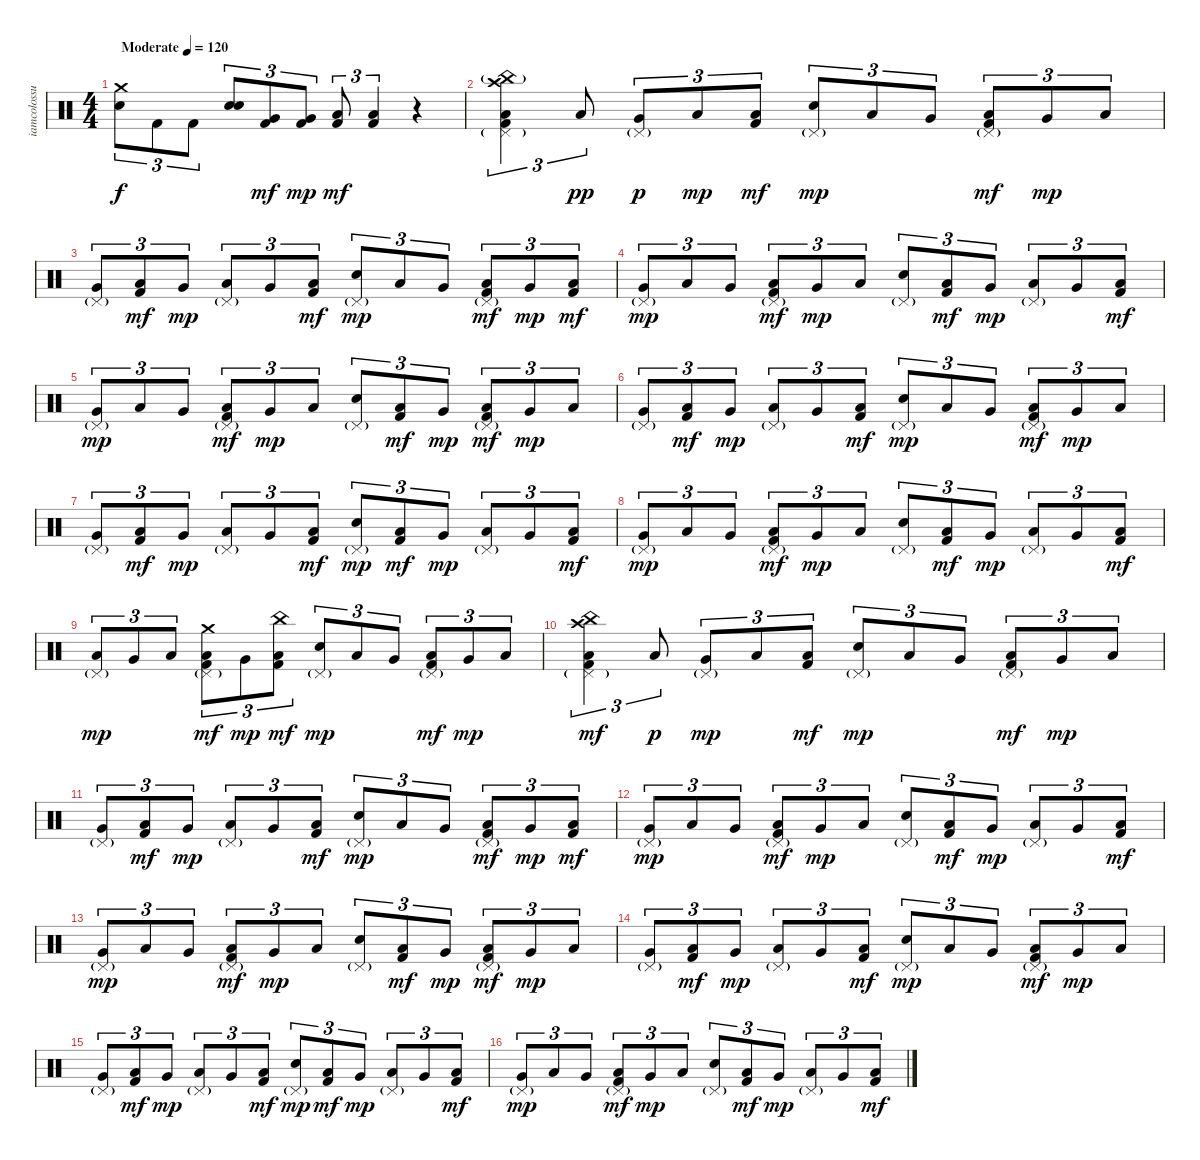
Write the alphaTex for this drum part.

\track ("iamcolossus(Thomas Haake)" "iamcolossu") {instrument percussion}
\staff {score}
\articulation defaults
\ts (4 4)
\tempo (120 "Moderate")
\clef neutral
\ks c
("Crash medium (hit)" "Electric Snare (hit)").8{tu (3 2) dy f} "Kick (hit) 2".8{tu (3 2)} "Kick (hit) 2".8{tu (3 2)} ("Electric Snare (hit)" "Electric Snare (hit)").8{tu (3 2) bd 120} ("Very Low Tom (hit)" "Kick (hit) 2").8{tu (3 2) dy mf} ("Very Low Tom (hit)" "Kick (hit) 2").8{tu (3 2) dy mp} ("Low Floor Tom (hit)" "Kick (hit) 2").8{tu (3 2) dy mf} ("Low Floor Tom (hit)" "Kick (hit) 2").4{tu (3 2)} r.4 |
("Pedal Hi-Hat (hit)"{g} "Crash high (hit)" "China (hit)"{g} "Low Floor Tom (hit)" "Kick (hit) 2").4{tu (3 2)} "Low Floor Tom (hit)".8{tu (3 2) dy pp} ("Pedal Hi-Hat (hit)"{g} "Very Low Tom (hit)").8{tu (3 2) dy p} "Low Floor Tom (hit)".8{tu (3 2) dy mp} ("Low Floor Tom (hit)" "Kick (hit) 2").8{tu (3 2) dy mf} ("Pedal Hi-Hat (hit)"{g} "Electric Snare (hit)").8{tu (3 2) dy mp} "Low Floor Tom (hit)".8{tu (3 2)} "Very Low Tom (hit)".8{tu (3 2)} ("Pedal Hi-Hat (hit)"{g} "Low Floor Tom (hit)" "Kick (hit) 2").8{tu (3 2) dy mf} "Very Low Tom (hit)".8{tu (3 2) dy mp} "Low Floor Tom (hit)".8{tu (3 2)} |
("Pedal Hi-Hat (hit)"{g} "Very Low Tom (hit)").8{tu (3 2)} ("Low Floor Tom (hit)" "Kick (hit) 2").8{tu (3 2) dy mf} "Very Low Tom (hit)".8{tu (3 2) dy mp} ("Pedal Hi-Hat (hit)"{g} "Low Floor Tom (hit)").8{tu (3 2)} "Very Low Tom (hit)".8{tu (3 2)} ("Low Floor Tom (hit)" "Kick (hit) 2").8{tu (3 2) dy mf} ("Pedal Hi-Hat (hit)"{g} "Electric Snare (hit)").8{tu (3 2) dy mp} "Low Floor Tom (hit)".8{tu (3 2)} "Very Low Tom (hit)".8{tu (3 2)} ("Pedal Hi-Hat (hit)"{g} "Low Floor Tom (hit)" "Kick (hit) 2").8{tu (3 2) dy mf} "Very Low Tom (hit)".8{tu (3 2) dy mp} ("Low Floor Tom (hit)" "Kick (hit) 2").8{tu (3 2) dy mf} |
("Pedal Hi-Hat (hit)"{g} "Very Low Tom (hit)").8{tu (3 2) dy mp} "Low Floor Tom (hit)".8{tu (3 2)} "Very Low Tom (hit)".8{tu (3 2)} ("Pedal Hi-Hat (hit)"{g} "Low Floor Tom (hit)" "Kick (hit) 2").8{tu (3 2) dy mf} "Very Low Tom (hit)".8{tu (3 2) dy mp} "Low Floor Tom (hit)".8{tu (3 2)} ("Pedal Hi-Hat (hit)"{g} "Electric Snare (hit)").8{tu (3 2)} ("Low Floor Tom (hit)" "Kick (hit) 2").8{tu (3 2) dy mf} "Very Low Tom (hit)".8{tu (3 2) dy mp} ("Pedal Hi-Hat (hit)"{g} "Low Floor Tom (hit)").8{tu (3 2)} "Very Low Tom (hit)".8{tu (3 2)} ("Low Floor Tom (hit)" "Kick (hit) 2").8{tu (3 2) dy mf} |
("Pedal Hi-Hat (hit)"{g} "Very Low Tom (hit)").8{tu (3 2) dy mp} "Low Floor Tom (hit)".8{tu (3 2)} "Very Low Tom (hit)".8{tu (3 2)} ("Pedal Hi-Hat (hit)"{g} "Low Floor Tom (hit)" "Kick (hit) 2").8{tu (3 2) dy mf} "Very Low Tom (hit)".8{tu (3 2) dy mp} "Low Floor Tom (hit)".8{tu (3 2)} ("Pedal Hi-Hat (hit)"{g} "Electric Snare (hit)").8{tu (3 2)} ("Low Floor Tom (hit)" "Kick (hit) 2").8{tu (3 2) dy mf} "Very Low Tom (hit)".8{tu (3 2) dy mp} ("Pedal Hi-Hat (hit)"{g} "Low Floor Tom (hit)" "Kick (hit) 2").8{tu (3 2) dy mf} "Very Low Tom (hit)".8{tu (3 2) dy mp} "Low Floor Tom (hit)".8{tu (3 2)} |
("Pedal Hi-Hat (hit)"{g} "Very Low Tom (hit)").8{tu (3 2)} ("Low Floor Tom (hit)" "Kick (hit) 2").8{tu (3 2) dy mf} "Very Low Tom (hit)".8{tu (3 2) dy mp} ("Pedal Hi-Hat (hit)"{g} "Low Floor Tom (hit)").8{tu (3 2)} "Very Low Tom (hit)".8{tu (3 2)} ("Low Floor Tom (hit)" "Kick (hit) 2").8{tu (3 2) dy mf} ("Pedal Hi-Hat (hit)"{g} "Electric Snare (hit)").8{tu (3 2) dy mp} "Low Floor Tom (hit)".8{tu (3 2)} "Very Low Tom (hit)".8{tu (3 2)} ("Pedal Hi-Hat (hit)"{g} "Low Floor Tom (hit)" "Kick (hit) 2").8{tu (3 2) dy mf} "Very Low Tom (hit)".8{tu (3 2) dy mp} "Low Floor Tom (hit)".8{tu (3 2)} |
("Pedal Hi-Hat (hit)"{g} "Very Low Tom (hit)").8{tu (3 2)} ("Low Floor Tom (hit)" "Kick (hit) 2").8{tu (3 2) dy mf} "Very Low Tom (hit)".8{tu (3 2) dy mp} ("Pedal Hi-Hat (hit)"{g} "Low Floor Tom (hit)").8{tu (3 2)} "Very Low Tom (hit)".8{tu (3 2)} ("Low Floor Tom (hit)" "Kick (hit) 2").8{tu (3 2) dy mf} ("Pedal Hi-Hat (hit)"{g} "Electric Snare (hit)").8{tu (3 2) dy mp} ("Low Floor Tom (hit)" "Kick (hit) 2").8{tu (3 2) dy mf} "Very Low Tom (hit)".8{tu (3 2) dy mp} ("Pedal Hi-Hat (hit)"{g} "Low Floor Tom (hit)").8{tu (3 2)} "Very Low Tom (hit)".8{tu (3 2)} ("Low Floor Tom (hit)" "Kick (hit) 2").8{tu (3 2) dy mf} |
("Pedal Hi-Hat (hit)"{g} "Very Low Tom (hit)").8{tu (3 2) dy mp} "Low Floor Tom (hit)".8{tu (3 2)} "Very Low Tom (hit)".8{tu (3 2)} ("Pedal Hi-Hat (hit)"{g} "Low Floor Tom (hit)" "Kick (hit) 2").8{tu (3 2) dy mf} "Very Low Tom (hit)".8{tu (3 2) dy mp} "Low Floor Tom (hit)".8{tu (3 2)} ("Pedal Hi-Hat (hit)"{g} "Electric Snare (hit)").8{tu (3 2)} ("Low Floor Tom (hit)" "Kick (hit) 2").8{tu (3 2) dy mf} "Very Low Tom (hit)".8{tu (3 2) dy mp} ("Pedal Hi-Hat (hit)"{g} "Low Floor Tom (hit)").8{tu (3 2)} "Very Low Tom (hit)".8{tu (3 2)} ("Low Floor Tom (hit)" "Kick (hit) 2").8{tu (3 2) dy mf} |
("Pedal Hi-Hat (hit)"{g} "Low Floor Tom (hit)").8{tu (3 2) dy mp} "Very Low Tom (hit)".8{tu (3 2)} "Low Floor Tom (hit)".8{tu (3 2)} ("Pedal Hi-Hat (hit)"{g} "Crash medium (hit)" "Low Floor Tom (hit)" "Kick (hit) 2").8{tu (3 2) dy mf} "Very Low Tom (hit)".8{tu (3 2) dy mp} ("China (hit)" "Low Floor Tom (hit)" "Kick (hit) 2").8{tu (3 2) dy mf} ("Pedal Hi-Hat (hit)"{g} "Electric Snare (hit)").8{tu (3 2) dy mp} "Low Floor Tom (hit)".8{tu (3 2)} "Very Low Tom (hit)".8{tu (3 2)} ("Pedal Hi-Hat (hit)"{g} "Low Floor Tom (hit)" "Kick (hit) 2").8{tu (3 2) dy mf} "Very Low Tom (hit)".8{tu (3 2) dy mp} "Low Floor Tom (hit)".8{tu (3 2)} |
("Pedal Hi-Hat (hit)"{g} "Crash high (hit)" "China (hit)" "Low Floor Tom (hit)" "Kick (hit) 2").4{tu (3 2) dy mf} "Low Floor Tom (hit)".8{tu (3 2) dy p} ("Pedal Hi-Hat (hit)"{g} "Very Low Tom (hit)").8{tu (3 2) dy mp} "Low Floor Tom (hit)".8{tu (3 2)} ("Low Floor Tom (hit)" "Kick (hit) 2").8{tu (3 2) dy mf} ("Pedal Hi-Hat (hit)"{g} "Electric Snare (hit)").8{tu (3 2) dy mp} "Low Floor Tom (hit)".8{tu (3 2)} "Very Low Tom (hit)".8{tu (3 2)} ("Pedal Hi-Hat (hit)"{g} "Low Floor Tom (hit)" "Kick (hit) 2").8{tu (3 2) dy mf} "Very Low Tom (hit)".8{tu (3 2) dy mp} "Low Floor Tom (hit)".8{tu (3 2)} |
("Pedal Hi-Hat (hit)"{g} "Very Low Tom (hit)").8{tu (3 2)} ("Low Floor Tom (hit)" "Kick (hit) 2").8{tu (3 2) dy mf} "Very Low Tom (hit)".8{tu (3 2) dy mp} ("Pedal Hi-Hat (hit)"{g} "Low Floor Tom (hit)").8{tu (3 2)} "Very Low Tom (hit)".8{tu (3 2)} ("Low Floor Tom (hit)" "Kick (hit) 2").8{tu (3 2) dy mf} ("Pedal Hi-Hat (hit)"{g} "Electric Snare (hit)").8{tu (3 2) dy mp} "Low Floor Tom (hit)".8{tu (3 2)} "Very Low Tom (hit)".8{tu (3 2)} ("Pedal Hi-Hat (hit)"{g} "Low Floor Tom (hit)" "Kick (hit) 2").8{tu (3 2) dy mf} "Very Low Tom (hit)".8{tu (3 2) dy mp} ("Low Floor Tom (hit)" "Kick (hit) 2").8{tu (3 2) dy mf} |
("Pedal Hi-Hat (hit)"{g} "Very Low Tom (hit)").8{tu (3 2) dy mp} "Low Floor Tom (hit)".8{tu (3 2)} "Very Low Tom (hit)".8{tu (3 2)} ("Pedal Hi-Hat (hit)"{g} "Low Floor Tom (hit)" "Kick (hit) 2").8{tu (3 2) dy mf} "Very Low Tom (hit)".8{tu (3 2) dy mp} "Low Floor Tom (hit)".8{tu (3 2)} ("Pedal Hi-Hat (hit)"{g} "Electric Snare (hit)").8{tu (3 2)} ("Low Floor Tom (hit)" "Kick (hit) 2").8{tu (3 2) dy mf} "Very Low Tom (hit)".8{tu (3 2) dy mp} ("Pedal Hi-Hat (hit)"{g} "Low Floor Tom (hit)").8{tu (3 2)} "Very Low Tom (hit)".8{tu (3 2)} ("Low Floor Tom (hit)" "Kick (hit) 2").8{tu (3 2) dy mf} |
("Pedal Hi-Hat (hit)"{g} "Very Low Tom (hit)").8{tu (3 2) dy mp} "Low Floor Tom (hit)".8{tu (3 2)} "Very Low Tom (hit)".8{tu (3 2)} ("Pedal Hi-Hat (hit)"{g} "Low Floor Tom (hit)" "Kick (hit) 2").8{tu (3 2) dy mf} "Very Low Tom (hit)".8{tu (3 2) dy mp} "Low Floor Tom (hit)".8{tu (3 2)} ("Pedal Hi-Hat (hit)"{g} "Electric Snare (hit)").8{tu (3 2)} ("Low Floor Tom (hit)" "Kick (hit) 2").8{tu (3 2) dy mf} "Very Low Tom (hit)".8{tu (3 2) dy mp} ("Pedal Hi-Hat (hit)"{g} "Low Floor Tom (hit)" "Kick (hit) 2").8{tu (3 2) dy mf} "Very Low Tom (hit)".8{tu (3 2) dy mp} "Low Floor Tom (hit)".8{tu (3 2)} |
("Pedal Hi-Hat (hit)"{g} "Very Low Tom (hit)").8{tu (3 2)} ("Low Floor Tom (hit)" "Kick (hit) 2").8{tu (3 2) dy mf} "Very Low Tom (hit)".8{tu (3 2) dy mp} ("Pedal Hi-Hat (hit)"{g} "Low Floor Tom (hit)").8{tu (3 2)} "Very Low Tom (hit)".8{tu (3 2)} ("Low Floor Tom (hit)" "Kick (hit) 2").8{tu (3 2) dy mf} ("Pedal Hi-Hat (hit)"{g} "Electric Snare (hit)").8{tu (3 2) dy mp} "Low Floor Tom (hit)".8{tu (3 2)} "Very Low Tom (hit)".8{tu (3 2)} ("Pedal Hi-Hat (hit)"{g} "Low Floor Tom (hit)" "Kick (hit) 2").8{tu (3 2) dy mf} "Very Low Tom (hit)".8{tu (3 2) dy mp} "Low Floor Tom (hit)".8{tu (3 2)} |
("Pedal Hi-Hat (hit)"{g} "Very Low Tom (hit)").8{tu (3 2)} ("Low Floor Tom (hit)" "Kick (hit) 2").8{tu (3 2) dy mf} "Very Low Tom (hit)".8{tu (3 2) dy mp} ("Pedal Hi-Hat (hit)"{g} "Low Floor Tom (hit)").8{tu (3 2)} "Very Low Tom (hit)".8{tu (3 2)} ("Low Floor Tom (hit)" "Kick (hit) 2").8{tu (3 2) dy mf} ("Pedal Hi-Hat (hit)"{g} "Electric Snare (hit)").8{tu (3 2) dy mp} ("Low Floor Tom (hit)" "Kick (hit) 2").8{tu (3 2) dy mf} "Very Low Tom (hit)".8{tu (3 2) dy mp} ("Pedal Hi-Hat (hit)"{g} "Low Floor Tom (hit)").8{tu (3 2)} "Very Low Tom (hit)".8{tu (3 2)} ("Low Floor Tom (hit)" "Kick (hit) 2").8{tu (3 2) dy mf} |
("Pedal Hi-Hat (hit)"{g} "Very Low Tom (hit)").8{tu (3 2) dy mp} "Low Floor Tom (hit)".8{tu (3 2)} "Very Low Tom (hit)".8{tu (3 2)} ("Pedal Hi-Hat (hit)"{g} "Low Floor Tom (hit)" "Kick (hit) 2").8{tu (3 2) dy mf} "Very Low Tom (hit)".8{tu (3 2) dy mp} "Low Floor Tom (hit)".8{tu (3 2)} ("Pedal Hi-Hat (hit)"{g} "Electric Snare (hit)").8{tu (3 2)} ("Low Floor Tom (hit)" "Kick (hit) 2").8{tu (3 2) dy mf} "Very Low Tom (hit)".8{tu (3 2) dy mp} ("Pedal Hi-Hat (hit)"{g} "Low Floor Tom (hit)").8{tu (3 2)} "Very Low Tom (hit)".8{tu (3 2)} ("Low Floor Tom (hit)" "Kick (hit) 2").8{tu (3 2) dy mf}
